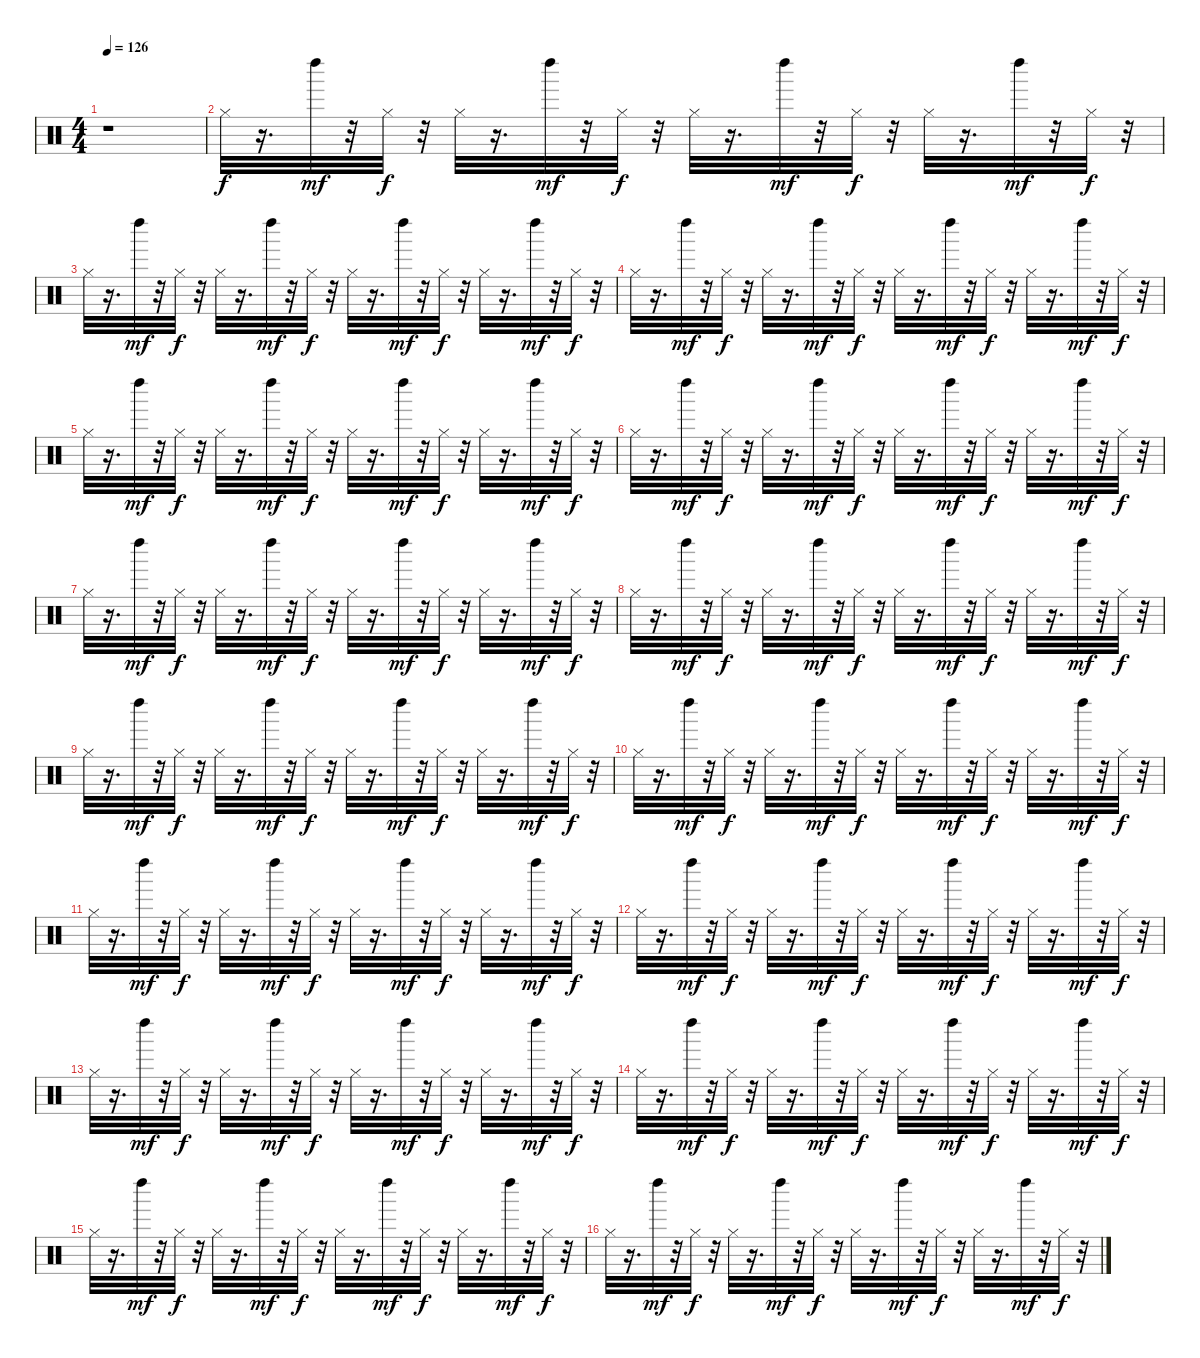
\track "" {instrument percussion}
\staff {score}
\articulation defaults
\ts (4 4)
\tempo 126
\clef neutral
\ks c
r.1{dy f} |
"Hi-Hat (closed)".32 r.16{d} "Left Maraca (hit)".32{dy mf} r.32 "Hi-Hat (closed)".32{dy f} r.32 "Hi-Hat (closed)".32 r.16{d} "Left Maraca (hit)".32{dy mf} r.32 "Hi-Hat (closed)".32{dy f} r.32 "Hi-Hat (closed)".32 r.16{d} "Left Maraca (hit)".32{dy mf} r.32 "Hi-Hat (closed)".32{dy f} r.32 "Hi-Hat (closed)".32 r.16{d} "Left Maraca (hit)".32{dy mf} r.32 "Hi-Hat (closed)".32{dy f} r.32 |
"Hi-Hat (closed)".32 r.16{d} "Left Maraca (hit)".32{dy mf} r.32 "Hi-Hat (closed)".32{dy f} r.32 "Hi-Hat (closed)".32 r.16{d} "Left Maraca (hit)".32{dy mf} r.32 "Hi-Hat (closed)".32{dy f} r.32 "Hi-Hat (closed)".32 r.16{d} "Left Maraca (hit)".32{dy mf} r.32 "Hi-Hat (closed)".32{dy f} r.32 "Hi-Hat (closed)".32 r.16{d} "Left Maraca (hit)".32{dy mf} r.32 "Hi-Hat (closed)".32{dy f} r.32 |
"Hi-Hat (closed)".32 r.16{d} "Left Maraca (hit)".32{dy mf} r.32 "Hi-Hat (closed)".32{dy f} r.32 "Hi-Hat (closed)".32 r.16{d} "Left Maraca (hit)".32{dy mf} r.32 "Hi-Hat (closed)".32{dy f} r.32 "Hi-Hat (closed)".32 r.16{d} "Left Maraca (hit)".32{dy mf} r.32 "Hi-Hat (closed)".32{dy f} r.32 "Hi-Hat (closed)".32 r.16{d} "Left Maraca (hit)".32{dy mf} r.32 "Hi-Hat (closed)".32{dy f} r.32 |
"Hi-Hat (closed)".32 r.16{d} "Left Maraca (hit)".32{dy mf} r.32 "Hi-Hat (closed)".32{dy f} r.32 "Hi-Hat (closed)".32 r.16{d} "Left Maraca (hit)".32{dy mf} r.32 "Hi-Hat (closed)".32{dy f} r.32 "Hi-Hat (closed)".32 r.16{d} "Left Maraca (hit)".32{dy mf} r.32 "Hi-Hat (closed)".32{dy f} r.32 "Hi-Hat (closed)".32 r.16{d} "Left Maraca (hit)".32{dy mf} r.32 "Hi-Hat (closed)".32{dy f} r.32 |
"Hi-Hat (closed)".32 r.16{d} "Left Maraca (hit)".32{dy mf} r.32 "Hi-Hat (closed)".32{dy f} r.32 "Hi-Hat (closed)".32 r.16{d} "Left Maraca (hit)".32{dy mf} r.32 "Hi-Hat (closed)".32{dy f} r.32 "Hi-Hat (closed)".32 r.16{d} "Left Maraca (hit)".32{dy mf} r.32 "Hi-Hat (closed)".32{dy f} r.32 "Hi-Hat (closed)".32 r.16{d} "Left Maraca (hit)".32{dy mf} r.32 "Hi-Hat (closed)".32{dy f} r.32 |
"Hi-Hat (closed)".32 r.16{d} "Left Maraca (hit)".32{dy mf} r.32 "Hi-Hat (closed)".32{dy f} r.32 "Hi-Hat (closed)".32 r.16{d} "Left Maraca (hit)".32{dy mf} r.32 "Hi-Hat (closed)".32{dy f} r.32 "Hi-Hat (closed)".32 r.16{d} "Left Maraca (hit)".32{dy mf} r.32 "Hi-Hat (closed)".32{dy f} r.32 "Hi-Hat (closed)".32 r.16{d} "Left Maraca (hit)".32{dy mf} r.32 "Hi-Hat (closed)".32{dy f} r.32 |
"Hi-Hat (closed)".32 r.16{d} "Left Maraca (hit)".32{dy mf} r.32 "Hi-Hat (closed)".32{dy f} r.32 "Hi-Hat (closed)".32 r.16{d} "Left Maraca (hit)".32{dy mf} r.32 "Hi-Hat (closed)".32{dy f} r.32 "Hi-Hat (closed)".32 r.16{d} "Left Maraca (hit)".32{dy mf} r.32 "Hi-Hat (closed)".32{dy f} r.32 "Hi-Hat (closed)".32 r.16{d} "Left Maraca (hit)".32{dy mf} r.32 "Hi-Hat (closed)".32{dy f} r.32 |
"Hi-Hat (closed)".32 r.16{d} "Left Maraca (hit)".32{dy mf} r.32 "Hi-Hat (closed)".32{dy f} r.32 "Hi-Hat (closed)".32 r.16{d} "Left Maraca (hit)".32{dy mf} r.32 "Hi-Hat (closed)".32{dy f} r.32 "Hi-Hat (closed)".32 r.16{d} "Left Maraca (hit)".32{dy mf} r.32 "Hi-Hat (closed)".32{dy f} r.32 "Hi-Hat (closed)".32 r.16{d} "Left Maraca (hit)".32{dy mf} r.32 "Hi-Hat (closed)".32{dy f} r.32 |
"Hi-Hat (closed)".32 r.16{d} "Left Maraca (hit)".32{dy mf} r.32 "Hi-Hat (closed)".32{dy f} r.32 "Hi-Hat (closed)".32 r.16{d} "Left Maraca (hit)".32{dy mf} r.32 "Hi-Hat (closed)".32{dy f} r.32 "Hi-Hat (closed)".32 r.16{d} "Left Maraca (hit)".32{dy mf} r.32 "Hi-Hat (closed)".32{dy f} r.32 "Hi-Hat (closed)".32 r.16{d} "Left Maraca (hit)".32{dy mf} r.32 "Hi-Hat (closed)".32{dy f} r.32 |
"Hi-Hat (closed)".32 r.16{d} "Left Maraca (hit)".32{dy mf} r.32 "Hi-Hat (closed)".32{dy f} r.32 "Hi-Hat (closed)".32 r.16{d} "Left Maraca (hit)".32{dy mf} r.32 "Hi-Hat (closed)".32{dy f} r.32 "Hi-Hat (closed)".32 r.16{d} "Left Maraca (hit)".32{dy mf} r.32 "Hi-Hat (closed)".32{dy f} r.32 "Hi-Hat (closed)".32 r.16{d} "Left Maraca (hit)".32{dy mf} r.32 "Hi-Hat (closed)".32{dy f} r.32 |
"Hi-Hat (closed)".32 r.16{d} "Left Maraca (hit)".32{dy mf} r.32 "Hi-Hat (closed)".32{dy f} r.32 "Hi-Hat (closed)".32 r.16{d} "Left Maraca (hit)".32{dy mf} r.32 "Hi-Hat (closed)".32{dy f} r.32 "Hi-Hat (closed)".32 r.16{d} "Left Maraca (hit)".32{dy mf} r.32 "Hi-Hat (closed)".32{dy f} r.32 "Hi-Hat (closed)".32 r.16{d} "Left Maraca (hit)".32{dy mf} r.32 "Hi-Hat (closed)".32{dy f} r.32 |
"Hi-Hat (closed)".32 r.16{d} "Left Maraca (hit)".32{dy mf} r.32 "Hi-Hat (closed)".32{dy f} r.32 "Hi-Hat (closed)".32 r.16{d} "Left Maraca (hit)".32{dy mf} r.32 "Hi-Hat (closed)".32{dy f} r.32 "Hi-Hat (closed)".32 r.16{d} "Left Maraca (hit)".32{dy mf} r.32 "Hi-Hat (closed)".32{dy f} r.32 "Hi-Hat (closed)".32 r.16{d} "Left Maraca (hit)".32{dy mf} r.32 "Hi-Hat (closed)".32{dy f} r.32 |
"Hi-Hat (closed)".32 r.16{d} "Left Maraca (hit)".32{dy mf} r.32 "Hi-Hat (closed)".32{dy f} r.32 "Hi-Hat (closed)".32 r.16{d} "Left Maraca (hit)".32{dy mf} r.32 "Hi-Hat (closed)".32{dy f} r.32 "Hi-Hat (closed)".32 r.16{d} "Left Maraca (hit)".32{dy mf} r.32 "Hi-Hat (closed)".32{dy f} r.32 "Hi-Hat (closed)".32 r.16{d} "Left Maraca (hit)".32{dy mf} r.32 "Hi-Hat (closed)".32{dy f} r.32 |
"Hi-Hat (closed)".32 r.16{d} "Left Maraca (hit)".32{dy mf} r.32 "Hi-Hat (closed)".32{dy f} r.32 "Hi-Hat (closed)".32 r.16{d} "Left Maraca (hit)".32{dy mf} r.32 "Hi-Hat (closed)".32{dy f} r.32 "Hi-Hat (closed)".32 r.16{d} "Left Maraca (hit)".32{dy mf} r.32 "Hi-Hat (closed)".32{dy f} r.32 "Hi-Hat (closed)".32 r.16{d} "Left Maraca (hit)".32{dy mf} r.32 "Hi-Hat (closed)".32{dy f} r.32 |
"Hi-Hat (closed)".32 r.16{d} "Left Maraca (hit)".32{dy mf} r.32 "Hi-Hat (closed)".32{dy f} r.32 "Hi-Hat (closed)".32 r.16{d} "Left Maraca (hit)".32{dy mf} r.32 "Hi-Hat (closed)".32{dy f} r.32 "Hi-Hat (closed)".32 r.16{d} "Left Maraca (hit)".32{dy mf} r.32 "Hi-Hat (closed)".32{dy f} r.32 "Hi-Hat (closed)".32 r.16{d} "Left Maraca (hit)".32{dy mf} r.32 "Hi-Hat (closed)".32{dy f} r.32
